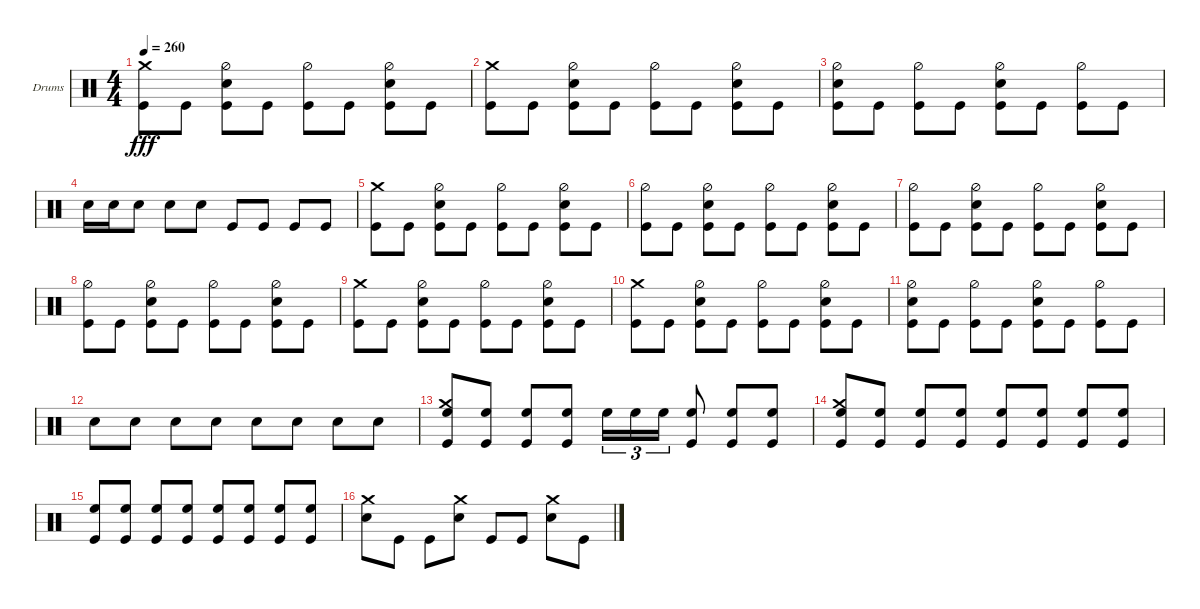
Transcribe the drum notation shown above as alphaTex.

\defaultSystemsLayout 4
\bracketExtendMode groupsimilarinstruments
\firstSystemTrackNameOrientation horizontal
\otherSystemsTrackNameOrientation horizontal
\track ("Stefan Schwarzmann" "Drums") {instrument percussion}
\staff {score}
\articulation defaults
\ts (4 4)
\tempo 260
\clef neutral
\ks c
("Kick (hit)" "Crash medium (hit)").8{dy fff} "Kick (hit)".8 ("Kick (hit)" "Snare (hit) 2" "Hi-Hat (half)").8 "Kick (hit)".8 ("Kick (hit)" "Hi-Hat (half)").8 "Kick (hit)".8 ("Kick (hit)" "Snare (hit) 2" "Hi-Hat (half)").8 "Kick (hit)".8 |
("Kick (hit)" "Crash medium (hit)").8 "Kick (hit)".8 ("Kick (hit)" "Snare (hit) 2" "Hi-Hat (half)").8 "Kick (hit)".8 ("Kick (hit)" "Hi-Hat (half)").8 "Kick (hit)".8 ("Kick (hit)" "Snare (hit) 2" "Hi-Hat (half)").8 "Kick (hit)".8 |
("Kick (hit)" "Snare (hit) 2" "Hi-Hat (half)").8 "Kick (hit)".8 ("Kick (hit)" "Hi-Hat (half)").8 "Kick (hit)".8 ("Kick (hit)" "Snare (hit) 2" "Hi-Hat (half)").8 "Kick (hit)".8 ("Kick (hit)" "Hi-Hat (half)").8 "Kick (hit)".8 |
"Snare (hit) 2".16 "Snare (hit) 2".16 "Snare (hit) 2".8 "Snare (hit) 2".8 "Snare (hit) 2".8 "Kick (hit)".8 "Kick (hit)".8 "Kick (hit)".8 "Kick (hit)".8 |
("Kick (hit)" "Crash medium (hit)").8 "Kick (hit)".8 ("Kick (hit)" "Snare (hit) 2" "Hi-Hat (half)").8 "Kick (hit)".8 ("Kick (hit)" "Hi-Hat (half)").8 "Kick (hit)".8 ("Kick (hit)" "Snare (hit) 2" "Hi-Hat (half)").8 "Kick (hit)".8 |
("Kick (hit)" "Hi-Hat (half)").8 "Kick (hit)".8 ("Kick (hit)" "Snare (hit) 2" "Hi-Hat (half)").8 "Kick (hit)".8 ("Kick (hit)" "Hi-Hat (half)").8 "Kick (hit)".8 ("Kick (hit)" "Snare (hit) 2" "Hi-Hat (half)").8 "Kick (hit)".8 |
("Kick (hit)" "Hi-Hat (half)").8 "Kick (hit)".8 ("Kick (hit)" "Snare (hit) 2" "Hi-Hat (half)").8 "Kick (hit)".8 ("Kick (hit)" "Hi-Hat (half)").8 "Kick (hit)".8 ("Kick (hit)" "Snare (hit) 2" "Hi-Hat (half)").8 "Kick (hit)".8 |
("Kick (hit)" "Hi-Hat (half)").8 "Kick (hit)".8 ("Kick (hit)" "Snare (hit) 2" "Hi-Hat (half)").8 "Kick (hit)".8 ("Kick (hit)" "Hi-Hat (half)").8 "Kick (hit)".8 ("Kick (hit)" "Snare (hit) 2" "Hi-Hat (half)").8 "Kick (hit)".8 |
("Kick (hit)" "Crash medium (hit)").8 "Kick (hit)".8 ("Kick (hit)" "Snare (hit) 2" "Hi-Hat (half)").8 "Kick (hit)".8 ("Kick (hit)" "Hi-Hat (half)").8 "Kick (hit)".8 ("Kick (hit)" "Snare (hit) 2" "Hi-Hat (half)").8 "Kick (hit)".8 |
("Kick (hit)" "Crash medium (hit)").8 "Kick (hit)".8 ("Kick (hit)" "Snare (hit) 2" "Hi-Hat (half)").8 "Kick (hit)".8 ("Kick (hit)" "Hi-Hat (half)").8 "Kick (hit)".8 ("Kick (hit)" "Snare (hit) 2" "Hi-Hat (half)").8 "Kick (hit)".8 |
("Kick (hit)" "Snare (hit) 2" "Hi-Hat (half)").8 "Kick (hit)".8 ("Kick (hit)" "Hi-Hat (half)").8 "Kick (hit)".8 ("Kick (hit)" "Snare (hit) 2" "Hi-Hat (half)").8 "Kick (hit)".8 ("Kick (hit)" "Hi-Hat (half)").8 "Kick (hit)".8 |
"Snare (hit) 2".8 "Snare (hit) 2".8 "Snare (hit) 2".8 "Snare (hit) 2".8 "Snare (hit) 2".8 "Snare (hit) 2".8 "Snare (hit) 2".8 "Snare (hit) 2".8 |
("Kick (hit)" "High Floor Tom (hit)" "Crash medium (hit)").8 ("Kick (hit)" "High Floor Tom (hit)").8 ("Kick (hit)" "High Floor Tom (hit)").8 ("Kick (hit)" "High Floor Tom (hit)").8 "High Floor Tom (hit)".16{tu (3 2)} "High Floor Tom (hit)".16{tu (3 2)} "High Floor Tom (hit)".16{tu (3 2)} ("Kick (hit)" "High Floor Tom (hit)").8 ("Kick (hit)" "High Floor Tom (hit)").8 ("Kick (hit)" "High Floor Tom (hit)").8 |
("Kick (hit)" "High Floor Tom (hit)" "Crash medium (hit)").8 ("Kick (hit)" "High Floor Tom (hit)").8 ("Kick (hit)" "High Floor Tom (hit)").8 ("Kick (hit)" "High Floor Tom (hit)").8 ("Kick (hit)" "High Floor Tom (hit)").8 ("Kick (hit)" "High Floor Tom (hit)").8 ("Kick (hit)" "High Floor Tom (hit)").8 ("Kick (hit)" "High Floor Tom (hit)").8 |
("Kick (hit)" "High Floor Tom (hit)").8 ("Kick (hit)" "High Floor Tom (hit)").8 ("Kick (hit)" "High Floor Tom (hit)").8 ("Kick (hit)" "High Floor Tom (hit)").8 ("Kick (hit)" "High Floor Tom (hit)").8 ("Kick (hit)" "High Floor Tom (hit)").8 ("Kick (hit)" "High Floor Tom (hit)").8 ("Kick (hit)" "High Floor Tom (hit)").8 |
("Snare (hit) 2" "Crash medium (hit)").8 "Kick (hit)".8 "Kick (hit)".8 ("Snare (hit) 2" "Crash medium (hit)").8 "Kick (hit)".8 "Kick (hit)".8 ("Snare (hit) 2" "Crash medium (hit)").8 "Kick (hit)".8
